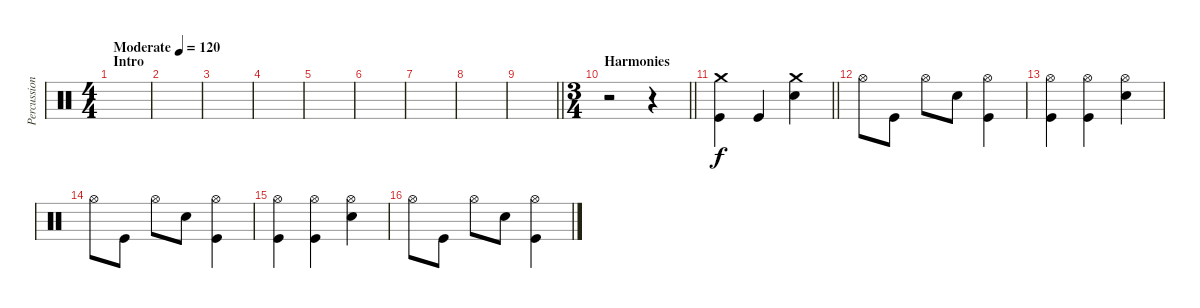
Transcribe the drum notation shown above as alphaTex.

\track ("Percussion" "Percussion") {instrument percussion}
\staff {score}
\articulation defaults
\ts (4 4)
\section ("" "Intro")
\tempo (120 "Moderate")
\clef neutral
\ks c
|
|
|
|
|
|
|
|
\barLineRight lightlight
|
\ts (3 4)
\section ("" "Harmonies")
\barLineRight lightlight
r.2 r.4 |
\barLineRight lightlight
("Crash medium (hit)" "Kick (hit)").4 "Kick (hit)".4 ("Crash medium (hit)" "Electric Snare (hit)").4 |
"Hi-Hat (open)".8 "Kick (hit)".8 "Hi-Hat (open)".8 "Electric Snare (hit)".8 ("Hi-Hat (open)" "Kick (hit)").4 |
("Hi-Hat (open)" "Kick (hit)").4 ("Hi-Hat (open)" "Kick (hit)").4 ("Hi-Hat (open)" "Electric Snare (hit)").4 |
"Hi-Hat (open)".8 "Kick (hit)".8 "Hi-Hat (open)".8 "Electric Snare (hit)".8 ("Hi-Hat (open)" "Kick (hit)").4 |
("Hi-Hat (open)" "Kick (hit)").4 ("Hi-Hat (open)" "Kick (hit)").4 ("Hi-Hat (open)" "Electric Snare (hit)").4 |
"Hi-Hat (open)".8 "Kick (hit)".8 "Hi-Hat (open)".8 "Electric Snare (hit)".8 ("Hi-Hat (open)" "Kick (hit)").4
